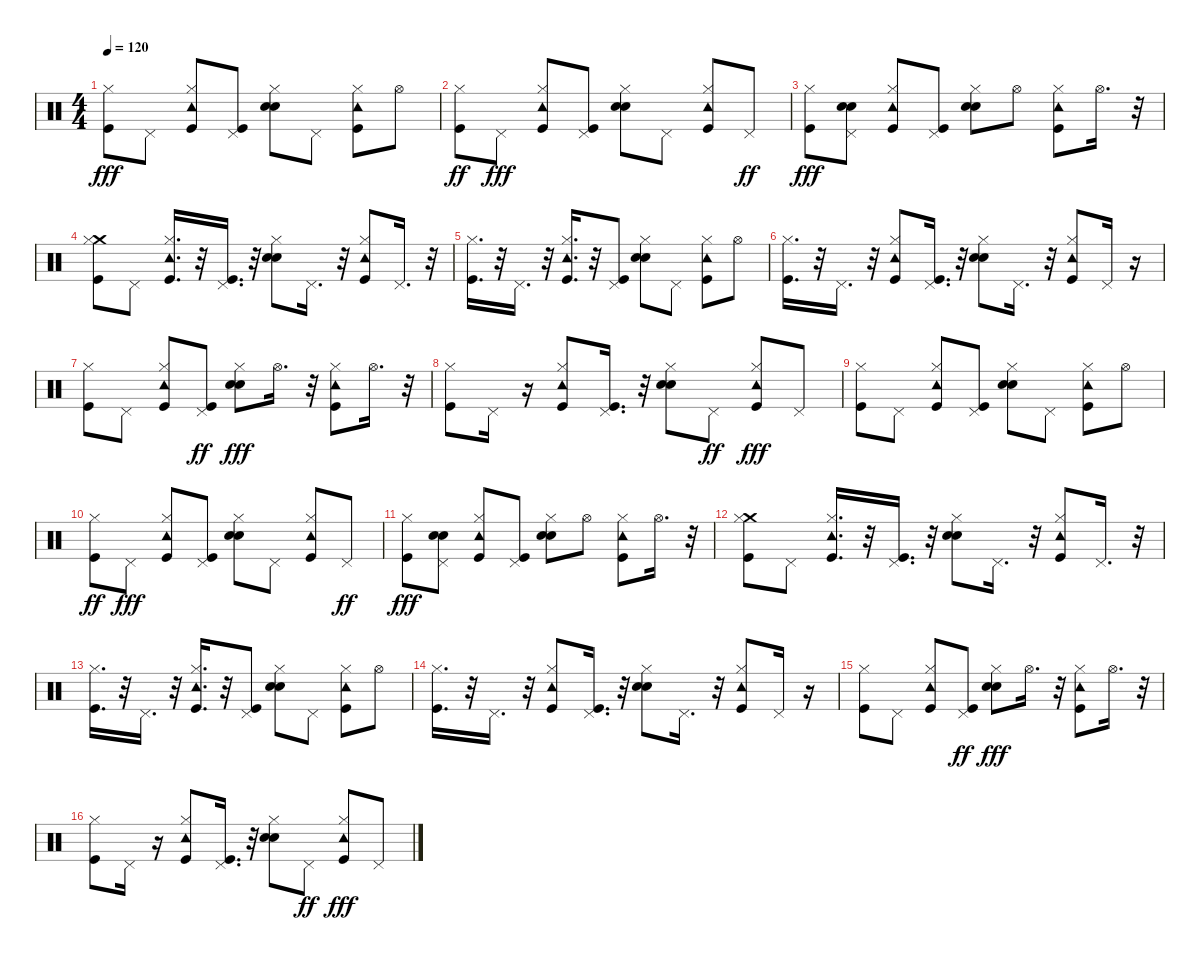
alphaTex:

\track "" {instrument percussion}
\staff {score}
\articulation defaults
\ts (4 4)
\tempo 120
\clef neutral
\ks c
("Kick (hit)" "Hi-Hat (closed)").8{dy fff} "Pedal Hi-Hat (hit)".8 ("Tambourine (hit)" "Hi-Hat (closed)" "Kick (hit)").8 ("Kick (hit)" "Pedal Hi-Hat (hit)").8 ("Hi-Hat (closed)" "Hand Clap (hit)" "Snare (hit) 2").8 "Pedal Hi-Hat (hit)".8 ("Tambourine (hit)" "Hi-Hat (closed)" "Kick (hit)").8 "Hi-Hat (open)".8 |
("Kick (hit)" "Hi-Hat (closed)").8{dy ff} "Pedal Hi-Hat (hit)".8{dy fff} ("Kick (hit)" "Hi-Hat (closed)" "Tambourine (hit)").8 ("Kick (hit)" "Pedal Hi-Hat (hit)").8 ("Hand Clap (hit)" "Hi-Hat (closed)" "Snare (hit) 2").8 "Pedal Hi-Hat (hit)".8 ("Tambourine (hit)" "Kick (hit)" "Hi-Hat (closed)").8 "Pedal Hi-Hat (hit)".8{dy ff} |
("Hi-Hat (closed)" "Kick (hit)").8{dy fff} ("Pedal Hi-Hat (hit)" "Hand Clap (hit)" "Snare (hit) 2").8 ("Tambourine (hit)" "Hi-Hat (closed)" "Kick (hit)").8 ("Pedal Hi-Hat (hit)" "Kick (hit)").8 ("Hi-Hat (closed)" "Hand Clap (hit)" "Snare (hit) 2").8 "Hi-Hat (open)".8 ("Tambourine (hit)" "Hi-Hat (closed)" "Kick (hit)").8 "Hi-Hat (open)".16{d} r.32 |
("Crash medium (hit)" "Kick (hit)" "Hi-Hat (closed)").8 "Pedal Hi-Hat (hit)".8 ("Hi-Hat (closed)" "Kick (hit)" "Tambourine (hit)").16{d} r.32 ("Pedal Hi-Hat (hit)" "Kick (hit)").16{d} r.32 ("Hand Clap (hit)" "Hi-Hat (closed)" "Snare (hit) 2").8 "Pedal Hi-Hat (hit)".16{d} r.32 ("Hi-Hat (closed)" "Kick (hit)" "Tambourine (hit)").8 "Pedal Hi-Hat (hit)".16{d} r.32 |
("Hi-Hat (closed)" "Kick (hit)").16{d} r.32 "Pedal Hi-Hat (hit)".16{d} r.32 ("Hi-Hat (closed)" "Kick (hit)" "Tambourine (hit)").16{d} r.32 ("Pedal Hi-Hat (hit)" "Kick (hit)").8 ("Hi-Hat (closed)" "Hand Clap (hit)" "Snare (hit) 2").8 "Pedal Hi-Hat (hit)".8 ("Hi-Hat (closed)" "Kick (hit)" "Tambourine (hit)").8 "Hi-Hat (open)".8 |
("Hi-Hat (closed)" "Kick (hit)").16{d} r.32 "Pedal Hi-Hat (hit)".16{d} r.32 ("Tambourine (hit)" "Kick (hit)" "Hi-Hat (closed)").8 ("Pedal Hi-Hat (hit)" "Kick (hit)").16{d} r.32 ("Hi-Hat (closed)" "Hand Clap (hit)" "Snare (hit) 2").8 "Pedal Hi-Hat (hit)".16{d} r.32 ("Tambourine (hit)" "Hi-Hat (closed)" "Kick (hit)").8 "Pedal Hi-Hat (hit)".16 r.16 |
("Kick (hit)" "Hi-Hat (closed)").8 "Pedal Hi-Hat (hit)".8 ("Tambourine (hit)" "Hi-Hat (closed)" "Kick (hit)").8 ("Kick (hit)" "Pedal Hi-Hat (hit)").8{dy ff} ("Hi-Hat (closed)" "Hand Clap (hit)" "Snare (hit) 2").8{dy fff} "Hi-Hat (open)".16{d} r.32 ("Hi-Hat (closed)" "Kick (hit)" "Tambourine (hit)").8 "Hi-Hat (open)".16{d} r.32 |
("Kick (hit)" "Hi-Hat (closed)").8 "Pedal Hi-Hat (hit)".16 r.16 ("Kick (hit)" "Hi-Hat (closed)" "Tambourine (hit)").8 ("Kick (hit)" "Pedal Hi-Hat (hit)").16{d} r.32 ("Hand Clap (hit)" "Hi-Hat (closed)" "Snare (hit) 2").8 "Pedal Hi-Hat (hit)".8{dy ff} ("Hi-Hat (closed)" "Kick (hit)" "Tambourine (hit)").8{dy fff} "Pedal Hi-Hat (hit)".8 |
("Kick (hit)" "Hi-Hat (closed)").8 "Pedal Hi-Hat (hit)".8 ("Tambourine (hit)" "Hi-Hat (closed)" "Kick (hit)").8 ("Kick (hit)" "Pedal Hi-Hat (hit)").8 ("Hi-Hat (closed)" "Hand Clap (hit)" "Snare (hit) 2").8 "Pedal Hi-Hat (hit)".8 ("Tambourine (hit)" "Hi-Hat (closed)" "Kick (hit)").8 "Hi-Hat (open)".8 |
("Kick (hit)" "Hi-Hat (closed)").8{dy ff} "Pedal Hi-Hat (hit)".8{dy fff} ("Kick (hit)" "Hi-Hat (closed)" "Tambourine (hit)").8 ("Kick (hit)" "Pedal Hi-Hat (hit)").8 ("Hand Clap (hit)" "Hi-Hat (closed)" "Snare (hit) 2").8 "Pedal Hi-Hat (hit)".8 ("Tambourine (hit)" "Kick (hit)" "Hi-Hat (closed)").8 "Pedal Hi-Hat (hit)".8{dy ff} |
("Hi-Hat (closed)" "Kick (hit)").8{dy fff} ("Pedal Hi-Hat (hit)" "Hand Clap (hit)" "Snare (hit) 2").8 ("Tambourine (hit)" "Hi-Hat (closed)" "Kick (hit)").8 ("Pedal Hi-Hat (hit)" "Kick (hit)").8 ("Hi-Hat (closed)" "Hand Clap (hit)" "Snare (hit) 2").8 "Hi-Hat (open)".8 ("Tambourine (hit)" "Hi-Hat (closed)" "Kick (hit)").8 "Hi-Hat (open)".16{d} r.32 |
("Crash medium (hit)" "Kick (hit)" "Hi-Hat (closed)").8 "Pedal Hi-Hat (hit)".8 ("Hi-Hat (closed)" "Kick (hit)" "Tambourine (hit)").16{d} r.32 ("Pedal Hi-Hat (hit)" "Kick (hit)").16{d} r.32 ("Hand Clap (hit)" "Hi-Hat (closed)" "Snare (hit) 2").8 "Pedal Hi-Hat (hit)".16{d} r.32 ("Hi-Hat (closed)" "Kick (hit)" "Tambourine (hit)").8 "Pedal Hi-Hat (hit)".16{d} r.32 |
("Hi-Hat (closed)" "Kick (hit)").16{d} r.32 "Pedal Hi-Hat (hit)".16{d} r.32 ("Hi-Hat (closed)" "Kick (hit)" "Tambourine (hit)").16{d} r.32 ("Pedal Hi-Hat (hit)" "Kick (hit)").8 ("Hi-Hat (closed)" "Hand Clap (hit)" "Snare (hit) 2").8 "Pedal Hi-Hat (hit)".8 ("Hi-Hat (closed)" "Kick (hit)" "Tambourine (hit)").8 "Hi-Hat (open)".8 |
("Hi-Hat (closed)" "Kick (hit)").16{d} r.32 "Pedal Hi-Hat (hit)".16{d} r.32 ("Tambourine (hit)" "Kick (hit)" "Hi-Hat (closed)").8 ("Pedal Hi-Hat (hit)" "Kick (hit)").16{d} r.32 ("Hi-Hat (closed)" "Hand Clap (hit)" "Snare (hit) 2").8 "Pedal Hi-Hat (hit)".16{d} r.32 ("Tambourine (hit)" "Hi-Hat (closed)" "Kick (hit)").8 "Pedal Hi-Hat (hit)".16 r.16 |
("Kick (hit)" "Hi-Hat (closed)").8 "Pedal Hi-Hat (hit)".8 ("Tambourine (hit)" "Hi-Hat (closed)" "Kick (hit)").8 ("Kick (hit)" "Pedal Hi-Hat (hit)").8{dy ff} ("Hi-Hat (closed)" "Hand Clap (hit)" "Snare (hit) 2").8{dy fff} "Hi-Hat (open)".16{d} r.32 ("Hi-Hat (closed)" "Kick (hit)" "Tambourine (hit)").8 "Hi-Hat (open)".16{d} r.32 |
("Kick (hit)" "Hi-Hat (closed)").8 "Pedal Hi-Hat (hit)".16 r.16 ("Kick (hit)" "Hi-Hat (closed)" "Tambourine (hit)").8 ("Kick (hit)" "Pedal Hi-Hat (hit)").16{d} r.32 ("Hand Clap (hit)" "Hi-Hat (closed)" "Snare (hit) 2").8 "Pedal Hi-Hat (hit)".8{dy ff} ("Hi-Hat (closed)" "Kick (hit)" "Tambourine (hit)").8{dy fff} "Pedal Hi-Hat (hit)".8
